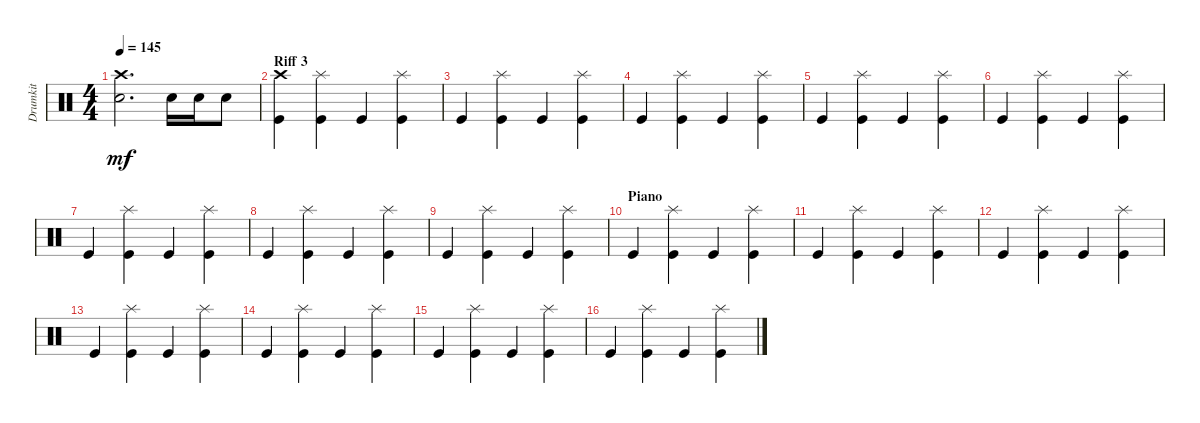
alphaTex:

\track ("Drumkit" "Drumkit") {instrument percussion}
\staff {score}
\articulation defaults
\ts (4 4)
\tempo 145
\clef neutral
\ks c
("Crash high (hit)" "Electric Snare (hit)").2{d dy mf} "Electric Snare (hit)".16 "Electric Snare (hit)".16 "Electric Snare (hit)".8 |
\section ("" "Riff 3")
("Kick (hit)" "Crash high (hit)").4 ("Kick (hit)" "Splash (hit)").4 "Kick (hit)".4 ("Kick (hit)" "Splash (hit)").4 |
"Kick (hit)".4 ("Kick (hit)" "Splash (hit)").4 "Kick (hit)".4 ("Kick (hit)" "Splash (hit)").4 |
"Kick (hit)".4 ("Kick (hit)" "Splash (hit)").4 "Kick (hit)".4 ("Kick (hit)" "Splash (hit)").4 |
"Kick (hit)".4 ("Kick (hit)" "Splash (hit)").4 "Kick (hit)".4 ("Kick (hit)" "Splash (hit)").4 |
"Kick (hit)".4 ("Kick (hit)" "Splash (hit)").4 "Kick (hit)".4 ("Kick (hit)" "Splash (hit)").4 |
"Kick (hit)".4 ("Kick (hit)" "Splash (hit)").4 "Kick (hit)".4 ("Kick (hit)" "Splash (hit)").4 |
"Kick (hit)".4 ("Kick (hit)" "Splash (hit)").4 "Kick (hit)".4 ("Kick (hit)" "Splash (hit)").4 |
"Kick (hit)".4 ("Kick (hit)" "Splash (hit)").4 "Kick (hit)".4 ("Kick (hit)" "Splash (hit)").4 |
\section ("" "Piano")
"Kick (hit)".4 ("Kick (hit)" "Splash (hit)").4 "Kick (hit)".4 ("Kick (hit)" "Splash (hit)").4 |
"Kick (hit)".4 ("Kick (hit)" "Splash (hit)").4 "Kick (hit)".4 ("Kick (hit)" "Splash (hit)").4 |
"Kick (hit)".4 ("Kick (hit)" "Splash (hit)").4 "Kick (hit)".4 ("Kick (hit)" "Splash (hit)").4 |
"Kick (hit)".4 ("Kick (hit)" "Splash (hit)").4 "Kick (hit)".4 ("Kick (hit)" "Splash (hit)").4 |
"Kick (hit)".4 ("Kick (hit)" "Splash (hit)").4 "Kick (hit)".4 ("Kick (hit)" "Splash (hit)").4 |
"Kick (hit)".4 ("Kick (hit)" "Splash (hit)").4 "Kick (hit)".4 ("Kick (hit)" "Splash (hit)").4 |
"Kick (hit)".4 ("Kick (hit)" "Splash (hit)").4 "Kick (hit)".4 ("Kick (hit)" "Splash (hit)").4
